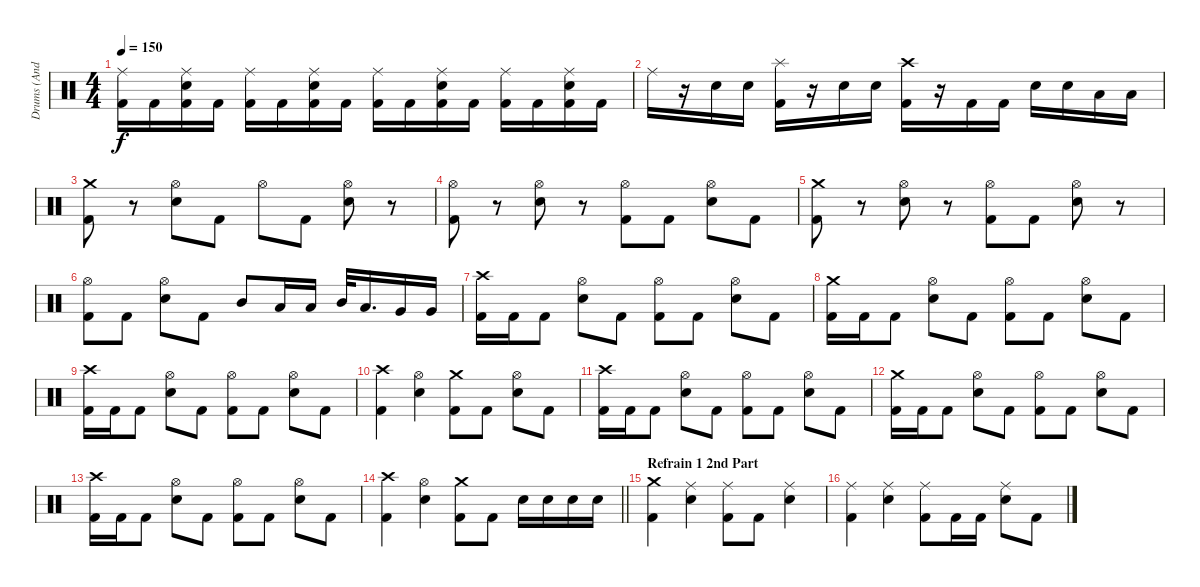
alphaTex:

\track ("Drums (Andy C)" "Drums (And") {instrument percussion}
\staff
\articulation defaults
\ts (4 4)
\tempo 150
\clef neutral
\ks c
("Ride (middle)" "Kick (hit) 2").16{dy f} "Kick (hit) 2".16 ("Ride (middle)" "Kick (hit) 2" "Electric Snare (hit)").16 "Kick (hit) 2".16 ("Ride (middle)" "Kick (hit) 2").16 "Kick (hit) 2".16 ("Ride (middle)" "Kick (hit) 2" "Electric Snare (hit)").16 "Kick (hit) 2".16 ("Ride (middle)" "Kick (hit) 2").16 "Kick (hit) 2".16 ("Ride (middle)" "Kick (hit) 2" "Electric Snare (hit)").16 "Kick (hit) 2".16 ("Ride (middle)" "Kick (hit) 2").16 "Kick (hit) 2".16 ("Ride (middle)" "Kick (hit) 2" "Electric Snare (hit)").16 "Kick (hit) 2".16 |
"Ride (middle)".16 r.16 "Electric Snare (hit)".16 "Electric Snare (hit)".16 ("Splash (hit)" "Kick (hit) 2").16 r.16 "Electric Snare (hit)".16 "Electric Snare (hit)".16 ("Crash high (hit)" "Kick (hit) 2").16 r.16 "Kick (hit) 2".16 "Kick (hit) 2".16 "Electric Snare (hit)".16 "Electric Snare (hit)".16 "Low Tom (hit)".16 "Low Tom (hit)".16 |
("Crash medium (hit)" "Kick (hit) 2").8 r.8 ("Hi-Hat (open)" "Electric Snare (hit)").8 "Kick (hit) 2".8 "Hi-Hat (open)".8 "Kick (hit) 2".8 ("Hi-Hat (open)" "Electric Snare (hit)").8 r.8 |
("Hi-Hat (open)" "Kick (hit) 2").8 r.8 ("Hi-Hat (open)" "Electric Snare (hit)").8 r.8 ("Hi-Hat (open)" "Kick (hit) 2").8 "Kick (hit) 2".8 ("Hi-Hat (open)" "Electric Snare (hit)").8 "Kick (hit) 2".8 |
("Crash medium (hit)" "Kick (hit) 2").8 r.8 ("Hi-Hat (open)" "Electric Snare (hit)").8 r.8 ("Hi-Hat (open)" "Kick (hit) 2").8 "Kick (hit) 2".8 ("Hi-Hat (open)" "Electric Snare (hit)").8 r.8 |
("Hi-Hat (open)" "Kick (hit) 2").8 "Kick (hit) 2".8 ("Hi-Hat (open)" "Electric Snare (hit)").8 "Kick (hit) 2".8 "Mid Tom (hit)".8 "Low Tom (hit)".16 "Low Tom (hit)".16 "Mid Tom (hit)".32 "Low Tom (hit)".16{d} "Very Low Tom (hit)".16 "Very Low Tom (hit)".16 |
("Crash high (hit)" "Kick (hit) 2").16 "Kick (hit) 2".16 "Kick (hit) 2".8 ("Hi-Hat (open)" "Electric Snare (hit)").8 "Kick (hit) 2".8 ("Hi-Hat (open)" "Kick (hit) 2").8 "Kick (hit) 2".8 ("Hi-Hat (open)" "Electric Snare (hit)").8 "Kick (hit) 2".8 |
("Crash medium (hit)" "Kick (hit) 2").16 "Kick (hit) 2".16 "Kick (hit) 2".8 ("Hi-Hat (open)" "Electric Snare (hit)").8 "Kick (hit) 2".8 ("Hi-Hat (open)" "Kick (hit) 2").8 "Kick (hit) 2".8 ("Hi-Hat (open)" "Electric Snare (hit)").8 "Kick (hit) 2".8 |
("Crash high (hit)" "Kick (hit) 2").16 "Kick (hit) 2".16 "Kick (hit) 2".8 ("Hi-Hat (open)" "Electric Snare (hit)").8 "Kick (hit) 2".8 ("Hi-Hat (open)" "Kick (hit) 2").8 "Kick (hit) 2".8 ("Hi-Hat (open)" "Electric Snare (hit)").8 "Kick (hit) 2".8 |
("Crash high (hit)" "Kick (hit) 2").4 ("Hi-Hat (open)" "Electric Snare (hit)").4 ("Crash medium (hit)" "Kick (hit) 2").8 "Kick (hit) 2".8 ("Hi-Hat (open)" "Electric Snare (hit)").8 "Kick (hit) 2".8 |
("Crash high (hit)" "Kick (hit) 2").16 "Kick (hit) 2".16 "Kick (hit) 2".8 ("Hi-Hat (open)" "Electric Snare (hit)").8 "Kick (hit) 2".8 ("Hi-Hat (open)" "Kick (hit) 2").8 "Kick (hit) 2".8 ("Hi-Hat (open)" "Electric Snare (hit)").8 "Kick (hit) 2".8 |
("Crash medium (hit)" "Kick (hit) 2").16 "Kick (hit) 2".16 "Kick (hit) 2".8 ("Hi-Hat (open)" "Electric Snare (hit)").8 "Kick (hit) 2".8 ("Hi-Hat (open)" "Kick (hit) 2").8 "Kick (hit) 2".8 ("Hi-Hat (open)" "Electric Snare (hit)").8 "Kick (hit) 2".8 |
("Crash high (hit)" "Kick (hit) 2").16 "Kick (hit) 2".16 "Kick (hit) 2".8 ("Hi-Hat (open)" "Electric Snare (hit)").8 "Kick (hit) 2".8 ("Hi-Hat (open)" "Kick (hit) 2").8 "Kick (hit) 2".8 ("Hi-Hat (open)" "Electric Snare (hit)").8 "Kick (hit) 2".8 |
\barLineRight lightlight
("Crash high (hit)" "Kick (hit) 2").4 ("Hi-Hat (open)" "Electric Snare (hit)").4 ("Crash medium (hit)" "Kick (hit) 2").8 "Kick (hit) 2".8 "Electric Snare (hit)".16 "Electric Snare (hit)".16 "Electric Snare (hit)".16 "Electric Snare (hit)".16 |
\section ("" "Refrain 1 2nd Part")
("Crash medium (hit)" "Kick (hit) 2").4 ("Ride (middle)" "Electric Snare (hit)").4 ("Ride (middle)" "Kick (hit) 2").8 "Kick (hit) 2".8 ("Ride (middle)" "Electric Snare (hit)").4 |
("Ride (middle)" "Kick (hit) 2").4 ("Ride (middle)" "Electric Snare (hit)").4 ("Ride (middle)" "Kick (hit) 2").8 "Kick (hit) 2".16 "Kick (hit) 2".16 ("Ride (middle)" "Electric Snare (hit)").8 "Kick (hit) 2".8
